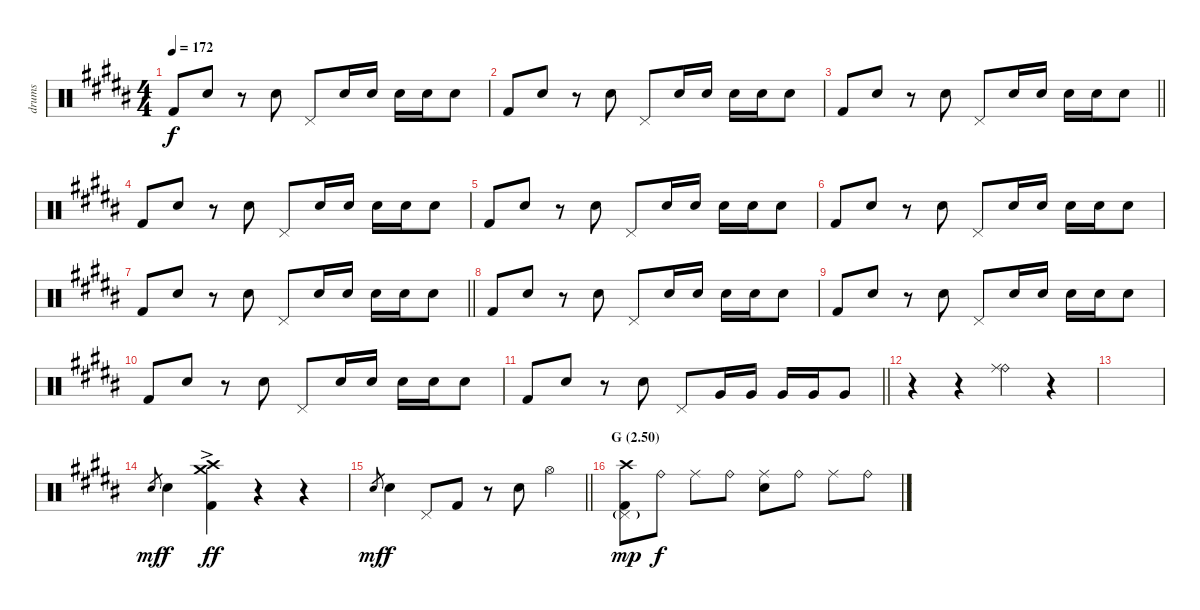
\track ("drums" "drums") {instrument percussion}
\staff {score}
\articulation defaults
\ts (4 4)
\tempo 172
\clef neutral
\ks g#minor "Kick (hit) 2".8{dy f} "Electric Snare (hit)".8
r.8 "Electric Snare (hit)".8 "Pedal Hi-Hat (hit)".8 "Electric Snare (hit)".16 "Electric Snare (hit)".16 "Electric Snare (hit)".16 "Electric Snare (hit)".16 "Electric Snare (hit)".8 |
"Kick (hit) 2".8 "Electric Snare (hit)".8 r.8 "Electric Snare (hit)".8 "Pedal Hi-Hat (hit)".8 "Electric Snare (hit)".16 "Electric Snare (hit)".16 "Electric Snare (hit)".16 "Electric Snare (hit)".16 "Electric Snare (hit)".8 |
\barLineRight lightlight "Kick (hit) 2".8 "Electric Snare (hit)".8
r.8 "Electric Snare (hit)".8 "Pedal Hi-Hat (hit)".8 "Electric Snare (hit)".16 "Electric Snare (hit)".16 "Electric Snare (hit)".16 "Electric Snare (hit)".16 "Electric Snare (hit)".8 |
\ks b "Kick (hit) 2".8 "Electric Snare (hit)".8
r.8 "Electric Snare (hit)".8 "Pedal Hi-Hat (hit)".8 "Electric Snare (hit)".16 "Electric Snare (hit)".16 "Electric Snare (hit)".16 "Electric Snare (hit)".16 "Electric Snare (hit)".8 |
\ks g#minor "Kick (hit) 2".8 "Electric Snare (hit)".8
r.8 "Electric Snare (hit)".8 "Pedal Hi-Hat (hit)".8 "Electric Snare (hit)".16 "Electric Snare (hit)".16 "Electric Snare (hit)".16 "Electric Snare (hit)".16 "Electric Snare (hit)".8 |
"Kick (hit) 2".8 "Electric Snare (hit)".8 r.8 "Electric Snare (hit)".8 "Pedal Hi-Hat (hit)".8 "Electric Snare (hit)".16 "Electric Snare (hit)".16 "Electric Snare (hit)".16 "Electric Snare (hit)".16 "Electric Snare (hit)".8 |
\barLineRight lightlight "Kick (hit) 2".8 "Electric Snare (hit)".8
r.8 "Electric Snare (hit)".8 "Pedal Hi-Hat (hit)".8 "Electric Snare (hit)".16 "Electric Snare (hit)".16 "Electric Snare (hit)".16 "Electric Snare (hit)".16 "Electric Snare (hit)".8 |
\ks b "Kick (hit) 2".8 "Electric Snare (hit)".8
r.8 "Electric Snare (hit)".8 "Pedal Hi-Hat (hit)".8 "Electric Snare (hit)".16 "Electric Snare (hit)".16 "Electric Snare (hit)".16 "Electric Snare (hit)".16 "Electric Snare (hit)".8 |
\ks g#minor "Kick (hit) 2".8 "Electric Snare (hit)".8
r.8 "Electric Snare (hit)".8 "Pedal Hi-Hat (hit)".8 "Electric Snare (hit)".16 "Electric Snare (hit)".16 "Electric Snare (hit)".16 "Electric Snare (hit)".16 "Electric Snare (hit)".8 |
"Kick (hit) 2".8 "Electric Snare (hit)".8 r.8 "Electric Snare (hit)".8 "Pedal Hi-Hat (hit)".8 "Electric Snare (hit)".16 "Electric Snare (hit)".16 "Electric Snare (hit)".16 "Electric Snare (hit)".16 "Electric Snare (hit)".8 |
\barLineRight lightlight "Kick (hit) 2".8 "Electric Snare (hit)".8
r.8 "Electric Snare (hit)".8 "Pedal Hi-Hat (hit)".8 "Very Low Tom (hit)".16 "Very Low Tom (hit)".16 "Very Low Tom (hit)".16 "Very Low Tom (hit)".16 "Very Low Tom (hit)".8 |
\ks b
r.4 r.4 ("Ride (bell)" "Ride (middle)").4 r.4 |
\ks g#minor
|
"Electric Snare (hit)".8{gr dy mf} "Electric Snare (hit)".4{dy f} ("Crash high (hit)"{ac} "Crash medium (hit)"{ac} "Kick (hit) 2"{ac}).4{dy ff} r.4 r.4 |
\barLineRight lightlight "Electric Snare (hit)".8{gr dy mf} "Electric Snare (hit)".4{dy f} "Pedal Hi-Hat (hit)".8 "Kick (hit) 2".8
r.8 "Electric Snare (hit)".8 "Hi-Hat (open)".4 |
\section ("" "G (2.50)")
\ks b
("Crash high (hit)" "Pedal Hi-Hat (hit)"{g} "Kick (hit) 2").8{dy mp} "Ride (bell)".8{dy f} "Ride (middle)".8 "Ride (bell)".8 ("Ride (middle)" "Electric Snare (hit)").8 "Ride (bell)".8 "Ride (middle)".8 "Ride (bell)".8
